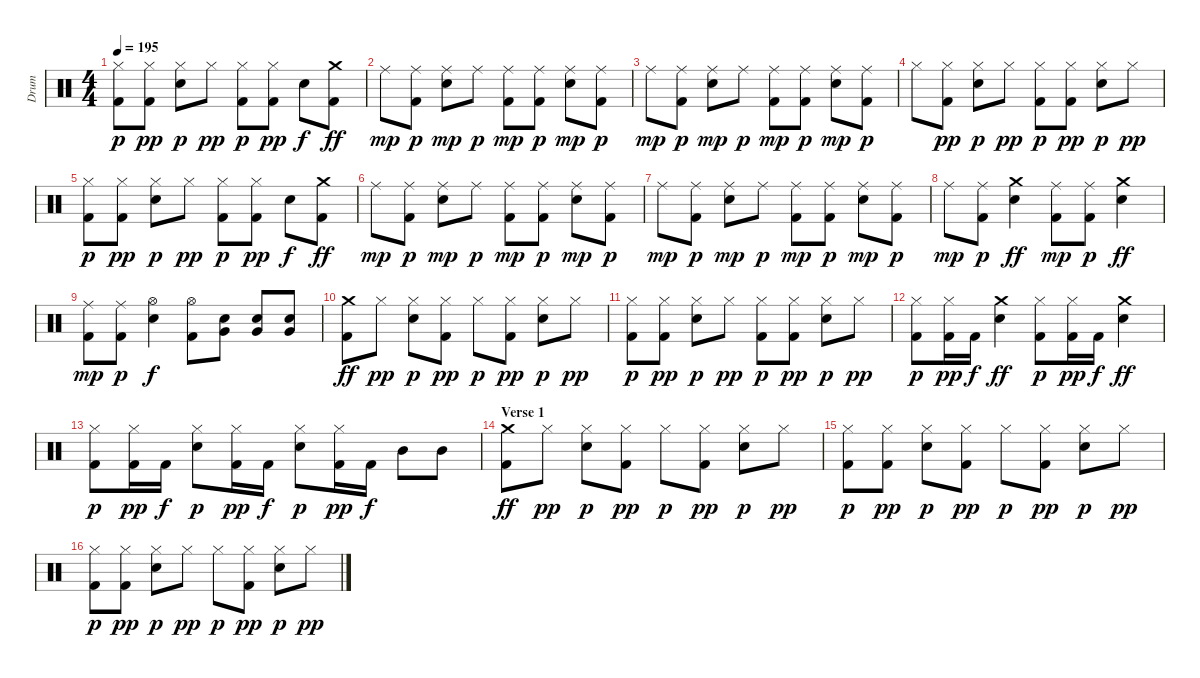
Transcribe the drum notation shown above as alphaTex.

\track ("Drum" "Drum") {instrument percussion}
\staff {score}
\articulation defaults
\ts (4 4)
\tempo 195
\clef neutral
\ks c
("Hi-Hat (closed)" "Kick (hit) 2").8{dy p} ("Hi-Hat (closed)" "Kick (hit) 2").8{dy pp} ("Hi-Hat (closed)" "Electric Snare (hit)").8{dy p} "Hi-Hat (closed)".8{dy pp} ("Hi-Hat (closed)" "Kick (hit) 2").8{dy p} ("Hi-Hat (closed)" "Kick (hit) 2").8{dy pp} "Electric Snare (hit)".8{dy f} ("Crash medium (hit)" "Kick (hit) 2").8{dy ff} |
"Ride (middle)".8{dy mp} ("Ride (middle)" "Kick (hit) 2").8{dy p} ("Ride (middle)" "Electric Snare (hit)").8{dy mp} "Ride (middle)".8{dy p} ("Ride (middle)" "Kick (hit) 2").8{dy mp} ("Ride (middle)" "Kick (hit) 2").8{dy p} ("Ride (middle)" "Electric Snare (hit)").8{dy mp} ("Ride (middle)" "Kick (hit) 2").8{dy p} |
"Ride (middle)".8{dy mp} ("Ride (middle)" "Kick (hit) 2").8{dy p} ("Ride (middle)" "Electric Snare (hit)").8{dy mp} "Ride (middle)".8{dy p} ("Ride (middle)" "Kick (hit) 2").8{dy mp} ("Ride (middle)" "Kick (hit) 2").8{dy p} ("Ride (middle)" "Electric Snare (hit)").8{dy mp} ("Ride (middle)" "Kick (hit) 2").8{dy p} |
"Hi-Hat (closed)".8 ("Hi-Hat (closed)" "Kick (hit) 2").8{dy pp} ("Hi-Hat (closed)" "Electric Snare (hit)").8{dy p} "Hi-Hat (closed)".8{dy pp} ("Hi-Hat (closed)" "Kick (hit) 2").8{dy p} ("Hi-Hat (closed)" "Kick (hit) 2").8{dy pp} ("Hi-Hat (closed)" "Electric Snare (hit)").8{dy p} "Hi-Hat (closed)".8{dy pp} |
("Hi-Hat (closed)" "Kick (hit) 2").8{dy p} ("Hi-Hat (closed)" "Kick (hit) 2").8{dy pp} ("Hi-Hat (closed)" "Electric Snare (hit)").8{dy p} "Hi-Hat (closed)".8{dy pp} ("Hi-Hat (closed)" "Kick (hit) 2").8{dy p} ("Hi-Hat (closed)" "Kick (hit) 2").8{dy pp} "Electric Snare (hit)".8{dy f} ("Crash medium (hit)" "Kick (hit) 2").8{dy ff} |
"Ride (middle)".8{dy mp} ("Ride (middle)" "Kick (hit) 2").8{dy p} ("Ride (middle)" "Electric Snare (hit)").8{dy mp} "Ride (middle)".8{dy p} ("Ride (middle)" "Kick (hit) 2").8{dy mp} ("Ride (middle)" "Kick (hit) 2").8{dy p} ("Ride (middle)" "Electric Snare (hit)").8{dy mp} ("Ride (middle)" "Kick (hit) 2").8{dy p} |
"Ride (middle)".8{dy mp} ("Ride (middle)" "Kick (hit) 2").8{dy p} ("Ride (middle)" "Electric Snare (hit)").8{dy mp} "Ride (middle)".8{dy p} ("Ride (middle)" "Kick (hit) 2").8{dy mp} ("Ride (middle)" "Kick (hit) 2").8{dy p} ("Ride (middle)" "Electric Snare (hit)").8{dy mp} ("Ride (middle)" "Kick (hit) 2").8{dy p} |
"Ride (middle)".8{dy mp} ("Ride (middle)" "Kick (hit) 2").8{dy p} ("Crash medium (hit)" "Electric Snare (hit)").4{dy ff} ("Ride (middle)" "Kick (hit) 2").8{dy mp} ("Ride (middle)" "Kick (hit) 2").8{dy p} ("Crash medium (hit)" "Electric Snare (hit)").4{dy ff} |
("Ride (middle)" "Kick (hit) 2").8{dy mp} ("Ride (middle)" "Kick (hit) 2").8{dy p} ("Hi-Hat (open)" "Electric Snare (hit)").4{dy f} ("Hi-Hat (open)" "Kick (hit) 2").8 ("Electric Snare (hit)" "Very Low Tom (hit)").8 ("Electric Snare (hit)" "Very Low Tom (hit)").8 ("Electric Snare (hit)" "Very Low Tom (hit)").8 |
("Crash medium (hit)" "Kick (hit) 2").8{dy ff} "Hi-Hat (closed)".8{dy pp} ("Hi-Hat (closed)" "Electric Snare (hit)").8{dy p} ("Hi-Hat (closed)" "Kick (hit) 2").8{dy pp} "Hi-Hat (closed)".8{dy p} ("Hi-Hat (closed)" "Kick (hit) 2").8{dy pp} ("Hi-Hat (closed)" "Electric Snare (hit)").8{dy p} "Hi-Hat (closed)".8{dy pp} |
("Hi-Hat (closed)" "Kick (hit) 2").8{dy p} ("Hi-Hat (closed)" "Kick (hit) 2").8{dy pp} ("Hi-Hat (closed)" "Electric Snare (hit)").8{dy p} "Hi-Hat (closed)".8{dy pp} ("Hi-Hat (closed)" "Kick (hit) 2").8{dy p} ("Hi-Hat (closed)" "Kick (hit) 2").8{dy pp} ("Hi-Hat (closed)" "Electric Snare (hit)").8{dy p} "Hi-Hat (closed)".8{dy pp} |
("Hi-Hat (closed)" "Kick (hit) 2").8{dy p} ("Hi-Hat (closed)" "Kick (hit) 2").16{dy pp} "Kick (hit) 2".16{dy f} ("Crash medium (hit)" "Electric Snare (hit)").4{dy ff} ("Hi-Hat (closed)" "Kick (hit) 2").8{dy p} ("Hi-Hat (closed)" "Kick (hit) 2").16{dy pp} "Kick (hit) 2".16{dy f} ("Crash medium (hit)" "Electric Snare (hit)").4{dy ff} |
("Hi-Hat (closed)" "Kick (hit) 2").8{dy p} ("Hi-Hat (closed)" "Kick (hit) 2").16{dy pp} "Kick (hit) 2".16{dy f} ("Hi-Hat (closed)" "Electric Snare (hit)").8{dy p} ("Hi-Hat (closed)" "Kick (hit) 2").16{dy pp} "Kick (hit) 2".16{dy f} ("Hi-Hat (closed)" "Electric Snare (hit)").8{dy p} ("Hi-Hat (closed)" "Kick (hit) 2").16{dy pp} "Kick (hit) 2".16{dy f} "Mid Tom (hit)".8 "Mid Tom (hit)".8 |
\section ("" "Verse 1")
("Crash medium (hit)" "Kick (hit) 2").8{dy ff} "Hi-Hat (closed)".8{dy pp} ("Hi-Hat (closed)" "Electric Snare (hit)").8{dy p} ("Hi-Hat (closed)" "Kick (hit) 2").8{dy pp} "Hi-Hat (closed)".8{dy p} ("Hi-Hat (closed)" "Kick (hit) 2").8{dy pp} ("Hi-Hat (closed)" "Electric Snare (hit)").8{dy p} "Hi-Hat (closed)".8{dy pp} |
("Hi-Hat (closed)" "Kick (hit) 2").8{dy p} ("Hi-Hat (closed)" "Kick (hit) 2").8{dy pp} ("Hi-Hat (closed)" "Electric Snare (hit)").8{dy p} ("Hi-Hat (closed)" "Kick (hit) 2").8{dy pp} "Hi-Hat (closed)".8{dy p} ("Hi-Hat (closed)" "Kick (hit) 2").8{dy pp} ("Hi-Hat (closed)" "Electric Snare (hit)").8{dy p} "Hi-Hat (closed)".8{dy pp} |
("Hi-Hat (closed)" "Kick (hit) 2").8{dy p} ("Hi-Hat (closed)" "Kick (hit) 2").8{dy pp} ("Hi-Hat (closed)" "Electric Snare (hit)").8{dy p} "Hi-Hat (closed)".8{dy pp} "Hi-Hat (closed)".8{dy p} ("Hi-Hat (closed)" "Kick (hit) 2").8{dy pp} ("Hi-Hat (closed)" "Electric Snare (hit)").8{dy p} "Hi-Hat (closed)".8{dy pp}
